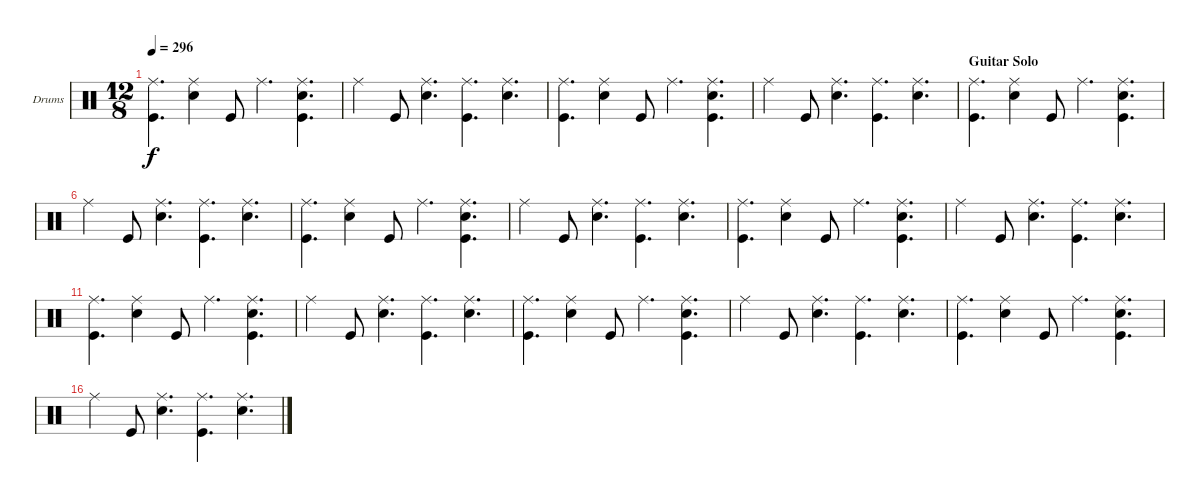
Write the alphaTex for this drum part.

\bracketExtendMode nobrackets
\firstSystemTrackNameOrientation horizontal
\otherSystemsTrackNameOrientation horizontal
\defaultBarNumberDisplay FirstOfSystem
\track ("Drumkit" "Drums") {instrument percussion}
\staff {score}
\articulation defaults
\ts (12 8)
\tempo 296
\clef neutral
\ks c
("Ride (middle)" "Kick (hit)").4{d dy f} ("Ride (middle)" "Snare (hit) 2").4 "Kick (hit)".8 "Ride (middle)".4{d} ("Ride (middle)" "Snare (hit) 2" "Kick (hit)").4{d} |
"Ride (middle)".4 "Kick (hit)".8 ("Ride (middle)" "Snare (hit) 2").4{d} ("Ride (middle)" "Kick (hit)").4{d} ("Ride (middle)" "Snare (hit) 2").4{d} |
("Ride (middle)" "Kick (hit)").4{d} ("Ride (middle)" "Snare (hit) 2").4 "Kick (hit)".8 "Ride (middle)".4{d} ("Ride (middle)" "Snare (hit) 2" "Kick (hit)").4{d} |
"Ride (middle)".4 "Kick (hit)".8 ("Ride (middle)" "Snare (hit) 2").4{d} ("Ride (middle)" "Kick (hit)").4{d} ("Ride (middle)" "Snare (hit) 2").4{d} |
\section ("" "Guitar Solo")
("Ride (middle)" "Kick (hit)").4{d} ("Ride (middle)" "Snare (hit) 2").4 "Kick (hit)".8 "Ride (middle)".4{d} ("Ride (middle)" "Snare (hit) 2" "Kick (hit)").4{d} |
"Ride (middle)".4 "Kick (hit)".8 ("Ride (middle)" "Snare (hit) 2").4{d} ("Ride (middle)" "Kick (hit)").4{d} ("Ride (middle)" "Snare (hit) 2").4{d} |
("Ride (middle)" "Kick (hit)").4{d} ("Ride (middle)" "Snare (hit) 2").4 "Kick (hit)".8 "Ride (middle)".4{d} ("Ride (middle)" "Snare (hit) 2" "Kick (hit)").4{d} |
"Ride (middle)".4 "Kick (hit)".8 ("Ride (middle)" "Snare (hit) 2").4{d} ("Ride (middle)" "Kick (hit)").4{d} ("Ride (middle)" "Snare (hit) 2").4{d} |
("Ride (middle)" "Kick (hit)").4{d} ("Ride (middle)" "Snare (hit) 2").4 "Kick (hit)".8 "Ride (middle)".4{d} ("Ride (middle)" "Snare (hit) 2" "Kick (hit)").4{d} |
"Ride (middle)".4 "Kick (hit)".8 ("Ride (middle)" "Snare (hit) 2").4{d} ("Ride (middle)" "Kick (hit)").4{d} ("Ride (middle)" "Snare (hit) 2").4{d} |
("Ride (middle)" "Kick (hit)").4{d} ("Ride (middle)" "Snare (hit) 2").4 "Kick (hit)".8 "Ride (middle)".4{d} ("Ride (middle)" "Snare (hit) 2" "Kick (hit)").4{d} |
"Ride (middle)".4 "Kick (hit)".8 ("Ride (middle)" "Snare (hit) 2").4{d} ("Ride (middle)" "Kick (hit)").4{d} ("Ride (middle)" "Snare (hit) 2").4{d} |
("Ride (middle)" "Kick (hit)").4{d} ("Ride (middle)" "Snare (hit) 2").4 "Kick (hit)".8 "Ride (middle)".4{d} ("Ride (middle)" "Snare (hit) 2" "Kick (hit)").4{d} |
"Ride (middle)".4 "Kick (hit)".8 ("Ride (middle)" "Snare (hit) 2").4{d} ("Ride (middle)" "Kick (hit)").4{d} ("Ride (middle)" "Snare (hit) 2").4{d} |
("Ride (middle)" "Kick (hit)").4{d} ("Ride (middle)" "Snare (hit) 2").4 "Kick (hit)".8 "Ride (middle)".4{d} ("Ride (middle)" "Snare (hit) 2" "Kick (hit)").4{d} |
"Ride (middle)".4 "Kick (hit)".8 ("Ride (middle)" "Snare (hit) 2").4{d} ("Ride (middle)" "Kick (hit)").4{d} ("Ride (middle)" "Snare (hit) 2").4{d}
